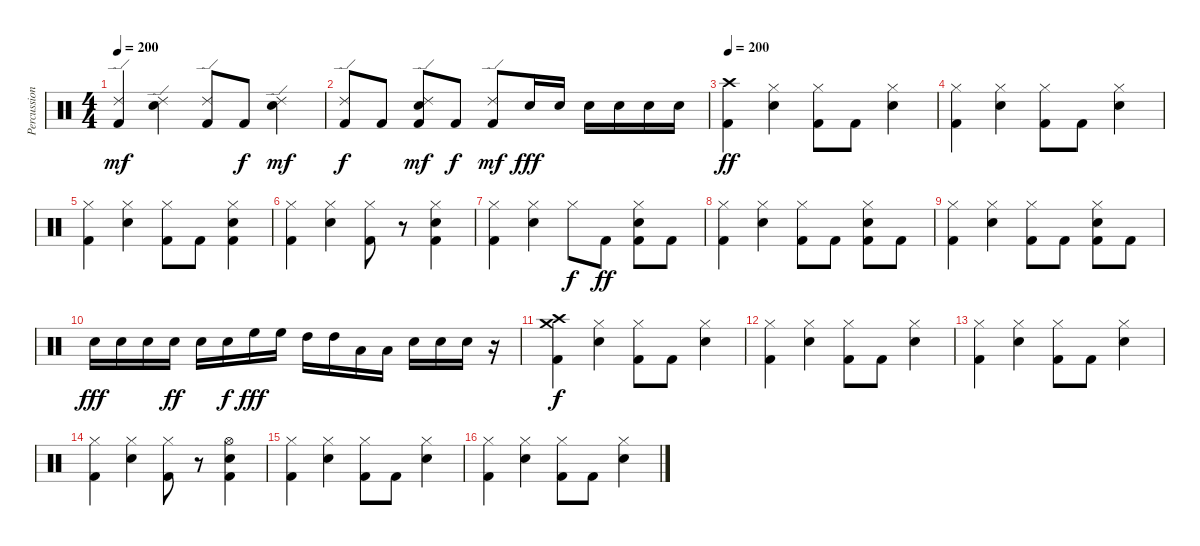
\track ("Percussions 1" "Percussion") {instrument percussion}
\staff {score}
\articulation defaults
\ts (4 4)
\tempo 200
\clef neutral
\ks c
("Ride (edge) 2" "Kick (hit) 2").4{dy mf} ("Ride (edge) 2" "Snare (hit) 2").4 ("Ride (edge) 2" "Kick (hit) 2").8 "Kick (hit) 2".8{dy f} ("Ride (edge) 2" "Snare (hit) 2").4{dy mf} |
("Ride (edge) 2" "Kick (hit) 2").8{dy f} "Kick (hit) 2".8 ("Ride (edge) 2" "Snare (hit) 2" "Kick (hit) 2").8{dy mf} "Kick (hit) 2".8{dy f} ("Ride (edge) 2" "Kick (hit) 2").8{dy mf} "Snare (hit) 2".16{dy fff} "Snare (hit) 2".16 "Snare (hit) 2".16 "Snare (hit) 2".16 "Snare (hit) 2".16 "Snare (hit) 2".16 |
\tempo 200
("Crash high (hit)" "Kick (hit) 2").4{dy ff} ("Hi-Hat (closed)" "Snare (hit) 2").4 ("Hi-Hat (closed)" "Kick (hit) 2").8 "Kick (hit) 2".8 ("Hi-Hat (closed)" "Snare (hit) 2").4 |
("Hi-Hat (closed)" "Kick (hit) 2").4 ("Hi-Hat (closed)" "Snare (hit) 2").4 ("Hi-Hat (closed)" "Kick (hit) 2").8 "Kick (hit) 2".8 ("Hi-Hat (closed)" "Snare (hit) 2").4 |
("Hi-Hat (closed)" "Kick (hit) 2").4 ("Hi-Hat (closed)" "Snare (hit) 2").4 ("Hi-Hat (closed)" "Kick (hit) 2").8 "Kick (hit) 2".8 ("Hi-Hat (closed)" "Snare (hit) 2" "Kick (hit) 2").4 |
("Hi-Hat (closed)" "Kick (hit) 2").4 ("Hi-Hat (closed)" "Snare (hit) 2").4 ("Hi-Hat (closed)" "Kick (hit) 2").8 r.8 ("Hi-Hat (closed)" "Snare (hit) 2" "Kick (hit) 2").4 |
("Hi-Hat (closed)" "Kick (hit) 2").4 ("Hi-Hat (closed)" "Snare (hit) 2").4 "Hi-Hat (closed)".8{dy f} "Kick (hit) 2".8{dy ff} ("Hi-Hat (closed)" "Snare (hit) 2" "Kick (hit) 2").8 "Kick (hit) 2".8 |
("Hi-Hat (closed)" "Kick (hit) 2").4 ("Hi-Hat (closed)" "Snare (hit) 2").4 ("Hi-Hat (closed)" "Kick (hit) 2").8 "Kick (hit) 2".8 ("Hi-Hat (closed)" "Snare (hit) 2" "Kick (hit) 2").8 "Kick (hit) 2".8 |
("Hi-Hat (closed)" "Kick (hit) 2").4 ("Hi-Hat (closed)" "Snare (hit) 2").4 ("Hi-Hat (closed)" "Kick (hit) 2").8 "Kick (hit) 2".8 ("Hi-Hat (closed)" "Snare (hit) 2" "Kick (hit) 2").8 "Kick (hit) 2".8 |
"Snare (hit) 2".16{dy fff} "Snare (hit) 2".16 "Snare (hit) 2".16 "Snare (hit) 2".16{dy ff} "Snare (hit) 2".16 "Snare (hit) 2".16{dy f} "High Floor Tom (hit)".16{dy fff} "High Floor Tom (hit)".16 "High Tom (hit)".16 "High Tom (hit)".16 "Low Tom (hit)".16 "Low Tom (hit)".16 "Snare (hit) 2".16 "Snare (hit) 2".16 "Snare (hit) 2".16 r.16 |
("Crash high (hit)" "Crash medium (hit)" "Kick (hit) 2").4{dy f} ("Hi-Hat (closed)" "Snare (hit) 2").4 ("Hi-Hat (closed)" "Kick (hit) 2").8 "Kick (hit) 2".8 ("Hi-Hat (closed)" "Snare (hit) 2").4 |
("Hi-Hat (closed)" "Kick (hit) 2").4 ("Hi-Hat (closed)" "Snare (hit) 2").4 ("Hi-Hat (closed)" "Kick (hit) 2").8 "Kick (hit) 2".8 ("Hi-Hat (closed)" "Snare (hit) 2").4 |
("Hi-Hat (closed)" "Kick (hit) 2").4 ("Hi-Hat (closed)" "Snare (hit) 2").4 ("Hi-Hat (closed)" "Kick (hit) 2").8 "Kick (hit) 2".8 ("Hi-Hat (closed)" "Snare (hit) 2").4 |
("Hi-Hat (closed)" "Kick (hit) 2").4 ("Hi-Hat (closed)" "Snare (hit) 2").4 ("Hi-Hat (closed)" "Kick (hit) 2").8 r.8 ("Hi-Hat (open)" "Snare (hit) 2" "Kick (hit) 2").4 |
("Hi-Hat (closed)" "Kick (hit) 2").4 ("Hi-Hat (closed)" "Snare (hit) 2").4 ("Hi-Hat (closed)" "Kick (hit) 2").8 "Kick (hit) 2".8 ("Hi-Hat (closed)" "Snare (hit) 2").4 |
("Hi-Hat (closed)" "Kick (hit) 2").4 ("Hi-Hat (closed)" "Snare (hit) 2").4 ("Hi-Hat (closed)" "Kick (hit) 2").8 "Kick (hit) 2".8 ("Hi-Hat (closed)" "Snare (hit) 2").4
